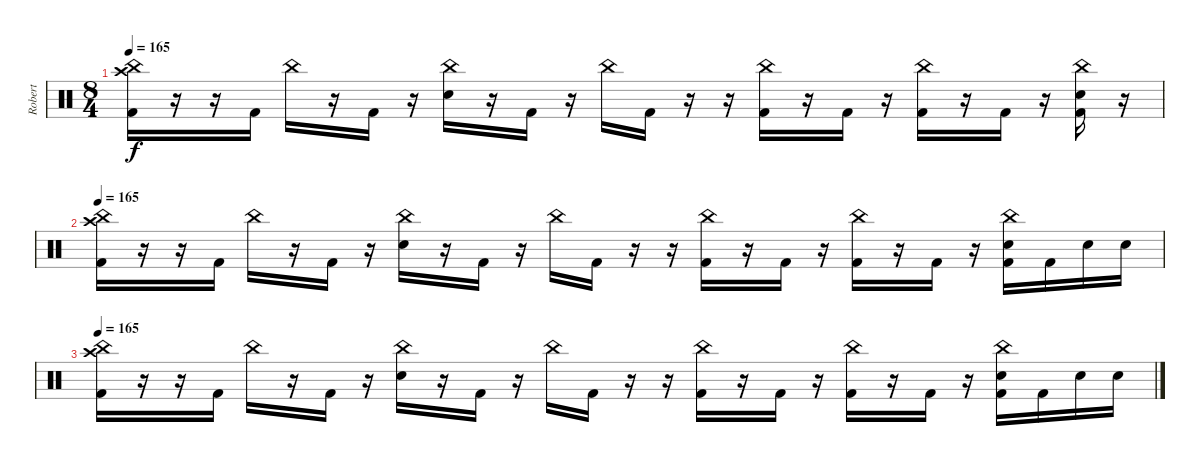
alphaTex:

\track ("Robert" "Robert") {instrument percussion}
\staff {score}
\articulation defaults
\ts (8 4)
\tempo 165
\clef neutral
\ks c
("Crash high (hit)" "China (hit)" "Kick (hit) 2").16{dy f} r.16 r.16 "Kick (hit) 2".16 "China (hit)".16 r.16 "Kick (hit) 2".16 r.16 ("China (hit)" "Electric Snare (hit)").16 r.16 "Kick (hit) 2".16 r.16 "China (hit)".16 "Kick (hit) 2".16 r.16 r.16 ("China (hit)" "Kick (hit) 2").16 r.16 "Kick (hit) 2".16 r.16 ("China (hit)" "Kick (hit) 2").16 r.16 "Kick (hit) 2".16 r.16 ("China (hit)" "Electric Snare (hit)" "Kick (hit) 2").16 r.16 |
\tempo 165
("Crash high (hit)" "China (hit)" "Kick (hit) 2").16 r.16 r.16 "Kick (hit) 2".16 "China (hit)".16 r.16 "Kick (hit) 2".16 r.16 ("China (hit)" "Electric Snare (hit)").16 r.16 "Kick (hit) 2".16 r.16 "China (hit)".16 "Kick (hit) 2".16 r.16 r.16 ("China (hit)" "Kick (hit) 2").16 r.16 "Kick (hit) 2".16 r.16 ("China (hit)" "Kick (hit) 2").16 r.16 "Kick (hit) 2".16 r.16 ("China (hit)" "Electric Snare (hit)" "Kick (hit) 2").16 "Kick (hit) 2".16 "Electric Snare (hit)".16 "Electric Snare (hit)".16 |
\tempo 165
("Crash high (hit)" "China (hit)" "Kick (hit) 2").16 r.16 r.16 "Kick (hit) 2".16 "China (hit)".16 r.16 "Kick (hit) 2".16 r.16 ("China (hit)" "Electric Snare (hit)").16 r.16 "Kick (hit) 2".16 r.16 "China (hit)".16 "Kick (hit) 2".16 r.16 r.16 ("China (hit)" "Kick (hit) 2").16 r.16 "Kick (hit) 2".16 r.16 ("China (hit)" "Kick (hit) 2").16 r.16 "Kick (hit) 2".16 r.16 ("China (hit)" "Electric Snare (hit)" "Kick (hit) 2").16 "Kick (hit) 2".16 "Electric Snare (hit)".16 "Electric Snare (hit)".16
